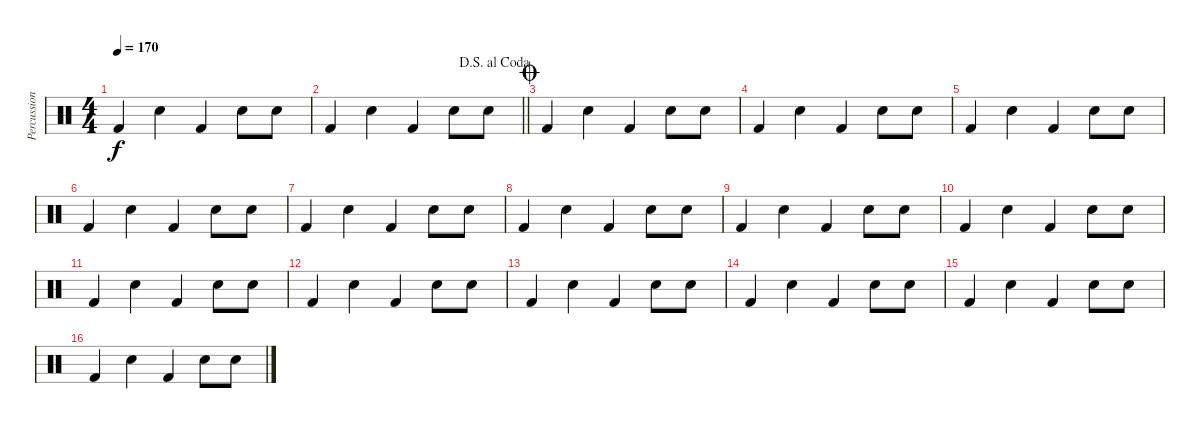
\track ("Percussions" "Percussion") {instrument percussion}
\staff {score}
\articulation defaults
\ts (4 4)
\tempo 170
\clef neutral
\ks c "Kick (hit) 2".4{dy f} "Electric Snare (hit)".4 "Kick (hit) 2".4 "Electric Snare (hit)".8 "Electric Snare (hit)".8
|
\jump dalsegnoalcoda
\barLineRight lightlight "Kick (hit) 2".4 "Electric Snare (hit)".4 "Kick (hit) 2".4 "Electric Snare (hit)".8 "Electric Snare (hit)".8
|
\jump coda "Kick (hit) 2".4 "Electric Snare (hit)".4 "Kick (hit) 2".4 "Electric Snare (hit)".8 "Electric Snare (hit)".8
|
"Kick (hit) 2".4 "Electric Snare (hit)".4 "Kick (hit) 2".4 "Electric Snare (hit)".8 "Electric Snare (hit)".8 |
"Kick (hit) 2".4 "Electric Snare (hit)".4 "Kick (hit) 2".4 "Electric Snare (hit)".8 "Electric Snare (hit)".8 |
"Kick (hit) 2".4 "Electric Snare (hit)".4 "Kick (hit) 2".4 "Electric Snare (hit)".8 "Electric Snare (hit)".8 |
"Kick (hit) 2".4 "Electric Snare (hit)".4 "Kick (hit) 2".4 "Electric Snare (hit)".8 "Electric Snare (hit)".8 |
"Kick (hit) 2".4 "Electric Snare (hit)".4 "Kick (hit) 2".4 "Electric Snare (hit)".8 "Electric Snare (hit)".8 |
"Kick (hit) 2".4 "Electric Snare (hit)".4 "Kick (hit) 2".4 "Electric Snare (hit)".8 "Electric Snare (hit)".8 |
"Kick (hit) 2".4 "Electric Snare (hit)".4 "Kick (hit) 2".4 "Electric Snare (hit)".8 "Electric Snare (hit)".8 |
"Kick (hit) 2".4 "Electric Snare (hit)".4 "Kick (hit) 2".4 "Electric Snare (hit)".8 "Electric Snare (hit)".8 |
"Kick (hit) 2".4 "Electric Snare (hit)".4 "Kick (hit) 2".4 "Electric Snare (hit)".8 "Electric Snare (hit)".8 |
"Kick (hit) 2".4 "Electric Snare (hit)".4 "Kick (hit) 2".4 "Electric Snare (hit)".8 "Electric Snare (hit)".8 |
"Kick (hit) 2".4 "Electric Snare (hit)".4 "Kick (hit) 2".4 "Electric Snare (hit)".8 "Electric Snare (hit)".8 |
"Kick (hit) 2".4 "Electric Snare (hit)".4 "Kick (hit) 2".4 "Electric Snare (hit)".8 "Electric Snare (hit)".8 |
"Kick (hit) 2".4 "Electric Snare (hit)".4 "Kick (hit) 2".4 "Electric Snare (hit)".8 "Electric Snare (hit)".8
